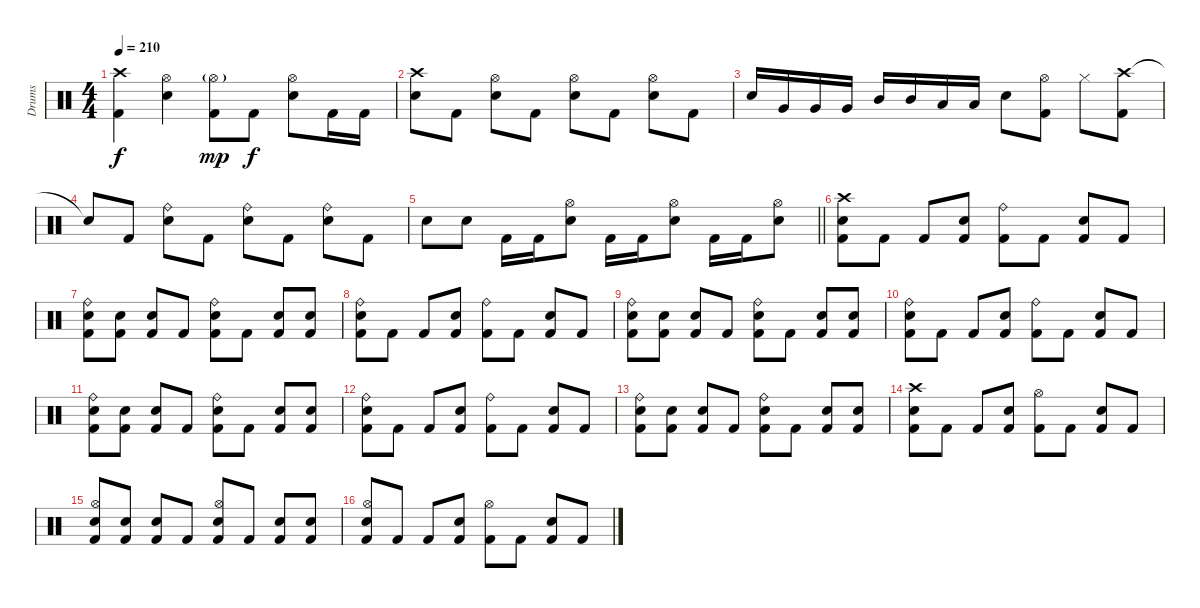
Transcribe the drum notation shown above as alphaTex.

\track ("Drums" "Drums") {instrument percussion}
\staff {score}
\articulation defaults
\ts (4 4)
\tempo 210
\clef neutral
\ks c
("Crash high (hit)" "Kick (hit) 2").4{dy f} ("Hi-Hat (open)" "Electric Snare (hit)").4 ("Hi-Hat (open)"{g} "Kick (hit) 2").8{dy mp} "Kick (hit) 2".8{dy f} ("Hi-Hat (open)" "Electric Snare (hit)").8 "Kick (hit) 2".16 "Kick (hit) 2".16 |
("Crash high (hit)" "Electric Snare (hit)").8 "Kick (hit) 2".8 ("Hi-Hat (open)" "Electric Snare (hit)").8 "Kick (hit) 2".8 ("Hi-Hat (open)" "Electric Snare (hit)").8 "Kick (hit) 2".8 ("Hi-Hat (open)" "Electric Snare (hit)").8 "Kick (hit) 2".8 |
"Snare (hit) 2".16 "Very Low Tom (hit)".16 "Very Low Tom (hit)".16 "Very Low Tom (hit)".16 "Mid Tom (hit)".16 "Mid Tom (hit)".16 "Low Tom (hit)".16 "Low Tom (hit)".16 "Snare (hit) 2".8 ("Hi-Hat (open)" "Kick (hit) 2").8 "Hi-Hat (closed)".8 ("Crash high (hit)" "Kick (hit) 2").8 |
"Snare (hit)"{t}.8 "Kick (hit) 2".8 ("Ride (bell)" "Electric Snare (hit)").8 "Kick (hit) 2".8 ("Ride (bell)" "Electric Snare (hit)").8 "Kick (hit) 2".8 ("Ride (bell)" "Electric Snare (hit)").8 "Kick (hit) 2".8 |
\barLineRight lightlight "Electric Snare (hit)".8 "Electric Snare (hit)".8 "Kick (hit) 2".16 "Kick (hit) 2".16
("Hi-Hat (open)" "Electric Snare (hit)").8 "Kick (hit) 2".16 "Kick (hit) 2".16 ("Hi-Hat (open)" "Electric Snare (hit)").8 "Kick (hit) 2".16 "Kick (hit) 2".16 ("Hi-Hat (open)" "Electric Snare (hit)").8 |
("Crash high (hit)" "Electric Snare (hit)" "Kick (hit) 2").8 "Kick (hit) 2".8 "Kick (hit) 2".8 ("Electric Snare (hit)" "Kick (hit) 2").8 ("Ride (bell)" "Kick (hit) 2").8 "Kick (hit) 2".8 ("Electric Snare (hit)" "Kick (hit) 2").8 "Kick (hit) 2".8 |
("Ride (bell)" "Electric Snare (hit)" "Kick (hit) 2").8 ("Electric Snare (hit)" "Kick (hit) 2").8 ("Electric Snare (hit)" "Kick (hit) 2").8 "Kick (hit) 2".8 ("Ride (bell)" "Electric Snare (hit)" "Kick (hit) 2").8 "Kick (hit) 2".8 ("Electric Snare (hit)" "Kick (hit) 2").8 ("Electric Snare (hit)" "Kick (hit) 2").8 |
("Ride (bell)" "Electric Snare (hit)" "Kick (hit) 2").8 "Kick (hit) 2".8 "Kick (hit) 2".8 ("Electric Snare (hit)" "Kick (hit) 2").8 ("Ride (bell)" "Kick (hit) 2").8 "Kick (hit) 2".8 ("Electric Snare (hit)" "Kick (hit) 2").8 "Kick (hit) 2".8 |
("Ride (bell)" "Electric Snare (hit)" "Kick (hit) 2").8 ("Electric Snare (hit)" "Kick (hit) 2").8 ("Electric Snare (hit)" "Kick (hit) 2").8 "Kick (hit) 2".8 ("Ride (bell)" "Electric Snare (hit)" "Kick (hit) 2").8 "Kick (hit) 2".8 ("Electric Snare (hit)" "Kick (hit) 2").8 ("Electric Snare (hit)" "Kick (hit) 2").8 |
("Ride (bell)" "Electric Snare (hit)" "Kick (hit) 2").8 "Kick (hit) 2".8 "Kick (hit) 2".8 ("Electric Snare (hit)" "Kick (hit) 2").8 ("Ride (bell)" "Kick (hit) 2").8 "Kick (hit) 2".8 ("Electric Snare (hit)" "Kick (hit) 2").8 "Kick (hit) 2".8 |
("Ride (bell)" "Electric Snare (hit)" "Kick (hit) 2").8 ("Electric Snare (hit)" "Kick (hit) 2").8 ("Electric Snare (hit)" "Kick (hit) 2").8 "Kick (hit) 2".8 ("Ride (bell)" "Electric Snare (hit)" "Kick (hit) 2").8 "Kick (hit) 2".8 ("Electric Snare (hit)" "Kick (hit) 2").8 ("Electric Snare (hit)" "Kick (hit) 2").8 |
("Ride (bell)" "Electric Snare (hit)" "Kick (hit) 2").8 "Kick (hit) 2".8 "Kick (hit) 2".8 ("Electric Snare (hit)" "Kick (hit) 2").8 ("Ride (bell)" "Kick (hit) 2").8 "Kick (hit) 2".8 ("Electric Snare (hit)" "Kick (hit) 2").8 "Kick (hit) 2".8 |
("Ride (bell)" "Electric Snare (hit)" "Kick (hit) 2").8 ("Electric Snare (hit)" "Kick (hit) 2").8 ("Electric Snare (hit)" "Kick (hit) 2").8 "Kick (hit) 2".8 ("Ride (bell)" "Electric Snare (hit)" "Kick (hit) 2").8 "Kick (hit) 2".8 ("Electric Snare (hit)" "Kick (hit) 2").8 ("Electric Snare (hit)" "Kick (hit) 2").8 |
("Crash high (hit)" "Electric Snare (hit)" "Kick (hit) 2").8 "Kick (hit) 2".8 "Kick (hit) 2".8 ("Electric Snare (hit)" "Kick (hit) 2").8 ("Hi-Hat (open)" "Kick (hit) 2").8 "Kick (hit) 2".8 ("Electric Snare (hit)" "Kick (hit) 2").8 "Kick (hit) 2".8 |
("Hi-Hat (open)" "Electric Snare (hit)" "Kick (hit) 2").8 ("Electric Snare (hit)" "Kick (hit) 2").8 ("Electric Snare (hit)" "Kick (hit) 2").8 "Kick (hit) 2".8 ("Hi-Hat (open)" "Electric Snare (hit)" "Kick (hit) 2").8 "Kick (hit) 2".8 ("Electric Snare (hit)" "Kick (hit) 2").8 ("Electric Snare (hit)" "Kick (hit) 2").8 |
("Hi-Hat (open)" "Electric Snare (hit)" "Kick (hit) 2").8 "Kick (hit) 2".8 "Kick (hit) 2".8 ("Electric Snare (hit)" "Kick (hit) 2").8 ("Hi-Hat (open)" "Kick (hit) 2").8 "Kick (hit) 2".8 ("Electric Snare (hit)" "Kick (hit) 2").8 "Kick (hit) 2".8
